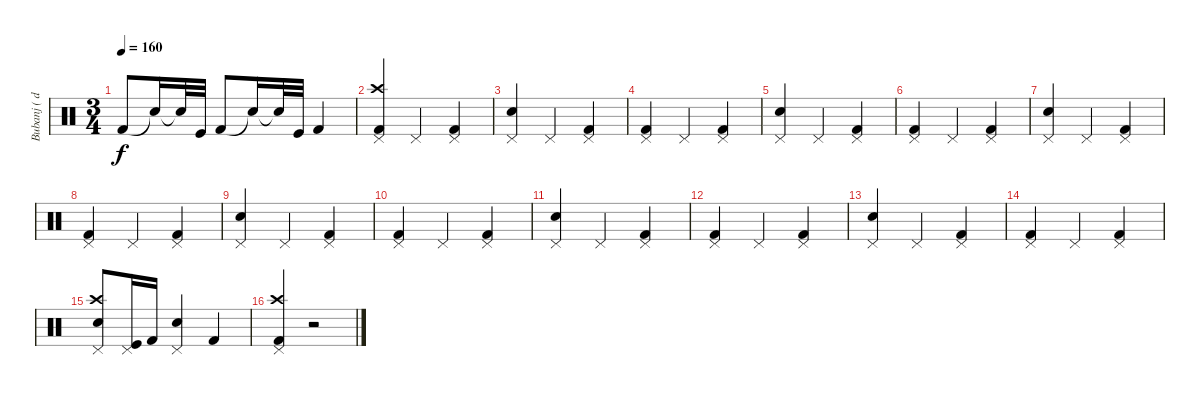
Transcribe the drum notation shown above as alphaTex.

\track ("Bubanj ( drums )" "Bubanj ( d") {instrument percussion}
\staff {score}
\articulation defaults
\ts (3 4)
\tempo 160
\clef neutral
\ks c "Kick (hit) 2".8{dy f} "Snare (hit)"{t}.16 "Snare (hit)"{t}.32 "Kick (hit)".32 "Kick (hit) 2".8 "Snare (hit)"{t}.16 "Snare (hit)"{t}.32 "Kick (hit)".32 "Kick (hit) 2".4
|
("Kick (hit) 2" "Crash high (hit)" "Pedal Hi-Hat (hit)").4 "Pedal Hi-Hat (hit)".4 ("Kick (hit) 2" "Pedal Hi-Hat (hit)").4 |
("Snare (hit) 2" "Pedal Hi-Hat (hit)").4 "Pedal Hi-Hat (hit)".4 ("Kick (hit) 2" "Pedal Hi-Hat (hit)").4 |
("Kick (hit) 2" "Pedal Hi-Hat (hit)").4 "Pedal Hi-Hat (hit)".4 ("Kick (hit) 2" "Pedal Hi-Hat (hit)").4 |
("Snare (hit) 2" "Pedal Hi-Hat (hit)").4 "Pedal Hi-Hat (hit)".4 ("Kick (hit) 2" "Pedal Hi-Hat (hit)").4 |
("Kick (hit) 2" "Pedal Hi-Hat (hit)").4 "Pedal Hi-Hat (hit)".4 ("Kick (hit) 2" "Pedal Hi-Hat (hit)").4 |
("Snare (hit) 2" "Pedal Hi-Hat (hit)").4 "Pedal Hi-Hat (hit)".4 ("Kick (hit) 2" "Pedal Hi-Hat (hit)").4 |
("Kick (hit) 2" "Pedal Hi-Hat (hit)").4 "Pedal Hi-Hat (hit)".4 ("Kick (hit) 2" "Pedal Hi-Hat (hit)").4 |
("Snare (hit) 2" "Pedal Hi-Hat (hit)").4 "Pedal Hi-Hat (hit)".4 ("Kick (hit) 2" "Pedal Hi-Hat (hit)").4 |
("Kick (hit) 2" "Pedal Hi-Hat (hit)").4 "Pedal Hi-Hat (hit)".4 ("Kick (hit) 2" "Pedal Hi-Hat (hit)").4 |
("Snare (hit) 2" "Pedal Hi-Hat (hit)").4 "Pedal Hi-Hat (hit)".4 ("Kick (hit) 2" "Pedal Hi-Hat (hit)").4 |
("Kick (hit) 2" "Pedal Hi-Hat (hit)").4 "Pedal Hi-Hat (hit)".4 ("Kick (hit) 2" "Pedal Hi-Hat (hit)").4 |
("Snare (hit) 2" "Pedal Hi-Hat (hit)").4 "Pedal Hi-Hat (hit)".4 ("Kick (hit) 2" "Pedal Hi-Hat (hit)").4 |
("Kick (hit) 2" "Pedal Hi-Hat (hit)").4 "Pedal Hi-Hat (hit)".4 ("Kick (hit) 2" "Pedal Hi-Hat (hit)").4 |
("Snare (hit) 2" "Crash high (hit)" "Pedal Hi-Hat (hit)").8 ("Kick (hit)" "Pedal Hi-Hat (hit)").16 "Kick (hit) 2".16 ("Snare (hit) 2" "Pedal Hi-Hat (hit)").4 "Kick (hit) 2".4 |
("Kick (hit) 2" "Crash high (hit)" "Pedal Hi-Hat (hit)").4 r.2
